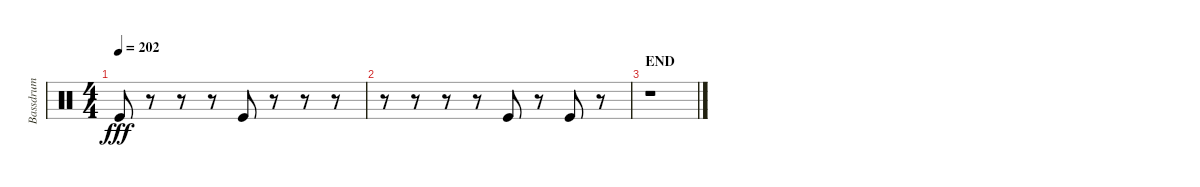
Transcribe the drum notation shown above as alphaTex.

\track ("Bassdrum" "Bassdrum") {instrument percussion}
\staff {score}
\articulation defaults
\ts (4 4)
\tempo 202
\clef neutral
\ks c "Kick (hit)".8{dy fff}
r.8 r.8 r.8 "Kick (hit)".8 r.8 r.8 r.8 |
r.8 r.8 r.8 r.8 "Kick (hit)".8 r.8 "Kick (hit)".8 r.8 |
\section ("" "END")
r.1
